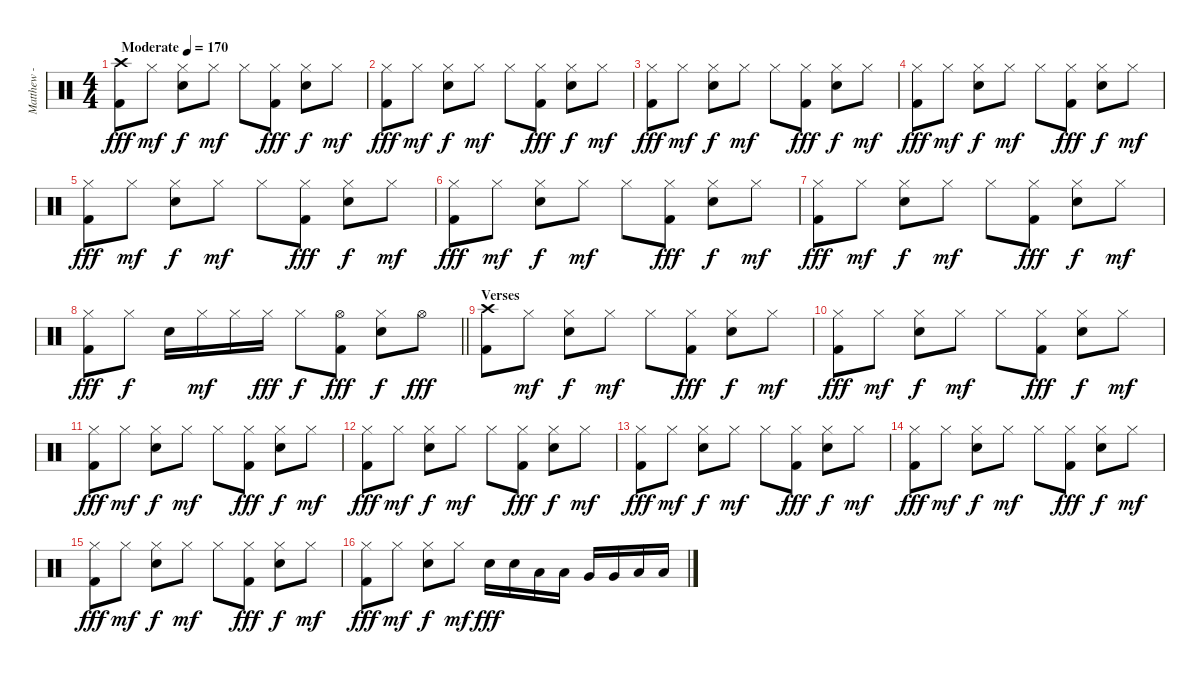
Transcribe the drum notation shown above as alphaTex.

\track ("Matthew - Drums" "Matthew - ") {instrument percussion}
\staff {score}
\articulation defaults
\ts (4 4)
\tempo (170 "Moderate")
\clef neutral
\ks c
("Crash high (hit)" "Kick (hit) 2").8{dy fff} "Hi-Hat (closed)".8{dy mf} ("Hi-Hat (closed)" "Electric Snare (hit)").8{dy f} "Hi-Hat (closed)".8{dy mf} "Hi-Hat (closed)".8 ("Hi-Hat (closed)" "Kick (hit) 2").8{dy fff} ("Hi-Hat (closed)" "Electric Snare (hit)").8{dy f} "Hi-Hat (closed)".8{dy mf} |
("Hi-Hat (closed)" "Kick (hit) 2").8{dy fff} "Hi-Hat (closed)".8{dy mf} ("Hi-Hat (closed)" "Electric Snare (hit)").8{dy f} "Hi-Hat (closed)".8{dy mf} "Hi-Hat (closed)".8 ("Hi-Hat (closed)" "Kick (hit) 2").8{dy fff} ("Hi-Hat (closed)" "Electric Snare (hit)").8{dy f} "Hi-Hat (closed)".8{dy mf} |
("Hi-Hat (closed)" "Kick (hit) 2").8{dy fff} "Hi-Hat (closed)".8{dy mf} ("Hi-Hat (closed)" "Electric Snare (hit)").8{dy f} "Hi-Hat (closed)".8{dy mf} "Hi-Hat (closed)".8 ("Hi-Hat (closed)" "Kick (hit) 2").8{dy fff} ("Hi-Hat (closed)" "Electric Snare (hit)").8{dy f} "Hi-Hat (closed)".8{dy mf} |
("Hi-Hat (closed)" "Kick (hit) 2").8{dy fff} "Hi-Hat (closed)".8{dy mf} ("Hi-Hat (closed)" "Electric Snare (hit)").8{dy f} "Hi-Hat (closed)".8{dy mf} "Hi-Hat (closed)".8 ("Hi-Hat (closed)" "Kick (hit) 2").8{dy fff} ("Hi-Hat (closed)" "Electric Snare (hit)").8{dy f} "Hi-Hat (closed)".8{dy mf} |
("Hi-Hat (closed)" "Kick (hit) 2").8{dy fff} "Hi-Hat (closed)".8{dy mf} ("Hi-Hat (closed)" "Electric Snare (hit)").8{dy f} "Hi-Hat (closed)".8{dy mf} "Hi-Hat (closed)".8 ("Hi-Hat (closed)" "Kick (hit) 2").8{dy fff} ("Hi-Hat (closed)" "Electric Snare (hit)").8{dy f} "Hi-Hat (closed)".8{dy mf} |
("Hi-Hat (closed)" "Kick (hit) 2").8{dy fff} "Hi-Hat (closed)".8{dy mf} ("Hi-Hat (closed)" "Electric Snare (hit)").8{dy f} "Hi-Hat (closed)".8{dy mf} "Hi-Hat (closed)".8 ("Hi-Hat (closed)" "Kick (hit) 2").8{dy fff} ("Hi-Hat (closed)" "Electric Snare (hit)").8{dy f} "Hi-Hat (closed)".8{dy mf} |
("Hi-Hat (closed)" "Kick (hit) 2").8{dy fff} "Hi-Hat (closed)".8{dy mf} ("Hi-Hat (closed)" "Electric Snare (hit)").8{dy f} "Hi-Hat (closed)".8{dy mf} "Hi-Hat (closed)".8 ("Hi-Hat (closed)" "Kick (hit) 2").8{dy fff} ("Hi-Hat (closed)" "Electric Snare (hit)").8{dy f} "Hi-Hat (closed)".8{dy mf} |
\barLineRight lightlight
("Hi-Hat (closed)" "Kick (hit) 2").8{dy fff} "Hi-Hat (closed)".8{dy f} "Electric Snare (hit)".16 "Hi-Hat (closed)".16{dy mf} "Hi-Hat (closed)".16 "Hi-Hat (closed)".16{dy fff} "Hi-Hat (closed)".8{dy f} ("Hi-Hat (open)" "Kick (hit) 2").8{dy fff} ("Hi-Hat (closed)" "Electric Snare (hit)").8{dy f} "Hi-Hat (open)".8{dy fff} |
\section ("" "Verses")
("Crash high (hit)" "Kick (hit) 2").8 "Hi-Hat (closed)".8{dy mf} ("Hi-Hat (closed)" "Electric Snare (hit)").8{dy f} "Hi-Hat (closed)".8{dy mf} "Hi-Hat (closed)".8 ("Hi-Hat (closed)" "Kick (hit) 2").8{dy fff} ("Hi-Hat (closed)" "Electric Snare (hit)").8{dy f} "Hi-Hat (closed)".8{dy mf} |
("Hi-Hat (closed)" "Kick (hit) 2").8{dy fff} "Hi-Hat (closed)".8{dy mf} ("Hi-Hat (closed)" "Electric Snare (hit)").8{dy f} "Hi-Hat (closed)".8{dy mf} "Hi-Hat (closed)".8 ("Hi-Hat (closed)" "Kick (hit) 2").8{dy fff} ("Hi-Hat (closed)" "Electric Snare (hit)").8{dy f} "Hi-Hat (closed)".8{dy mf} |
("Hi-Hat (closed)" "Kick (hit) 2").8{dy fff} "Hi-Hat (closed)".8{dy mf} ("Hi-Hat (closed)" "Electric Snare (hit)").8{dy f} "Hi-Hat (closed)".8{dy mf} "Hi-Hat (closed)".8 ("Hi-Hat (closed)" "Kick (hit) 2").8{dy fff} ("Hi-Hat (closed)" "Electric Snare (hit)").8{dy f} "Hi-Hat (closed)".8{dy mf} |
("Hi-Hat (closed)" "Kick (hit) 2").8{dy fff} "Hi-Hat (closed)".8{dy mf} ("Hi-Hat (closed)" "Electric Snare (hit)").8{dy f} "Hi-Hat (closed)".8{dy mf} "Hi-Hat (closed)".8 ("Hi-Hat (closed)" "Kick (hit) 2").8{dy fff} ("Hi-Hat (closed)" "Electric Snare (hit)").8{dy f} "Hi-Hat (closed)".8{dy mf} |
("Hi-Hat (closed)" "Kick (hit) 2").8{dy fff} "Hi-Hat (closed)".8{dy mf} ("Hi-Hat (closed)" "Electric Snare (hit)").8{dy f} "Hi-Hat (closed)".8{dy mf} "Hi-Hat (closed)".8 ("Hi-Hat (closed)" "Kick (hit) 2").8{dy fff} ("Hi-Hat (closed)" "Electric Snare (hit)").8{dy f} "Hi-Hat (closed)".8{dy mf} |
("Hi-Hat (closed)" "Kick (hit) 2").8{dy fff} "Hi-Hat (closed)".8{dy mf} ("Hi-Hat (closed)" "Electric Snare (hit)").8{dy f} "Hi-Hat (closed)".8{dy mf} "Hi-Hat (closed)".8 ("Hi-Hat (closed)" "Kick (hit) 2").8{dy fff} ("Hi-Hat (closed)" "Electric Snare (hit)").8{dy f} "Hi-Hat (closed)".8{dy mf} |
("Hi-Hat (closed)" "Kick (hit) 2").8{dy fff} "Hi-Hat (closed)".8{dy mf} ("Hi-Hat (closed)" "Electric Snare (hit)").8{dy f} "Hi-Hat (closed)".8{dy mf} "Hi-Hat (closed)".8 ("Hi-Hat (closed)" "Kick (hit) 2").8{dy fff} ("Hi-Hat (closed)" "Electric Snare (hit)").8{dy f} "Hi-Hat (closed)".8{dy mf} |
("Hi-Hat (closed)" "Kick (hit) 2").8{dy fff} "Hi-Hat (closed)".8{dy mf} ("Hi-Hat (closed)" "Electric Snare (hit)").8{dy f} "Hi-Hat (closed)".8{dy mf} "Electric Snare (hit)".16{dy fff} "Electric Snare (hit)".16 "Low Tom (hit)".16 "Low Tom (hit)".16 "Very Low Tom (hit)".16 "Very Low Tom (hit)".16 "Low Floor Tom (hit)".16 "Low Floor Tom (hit)".16
